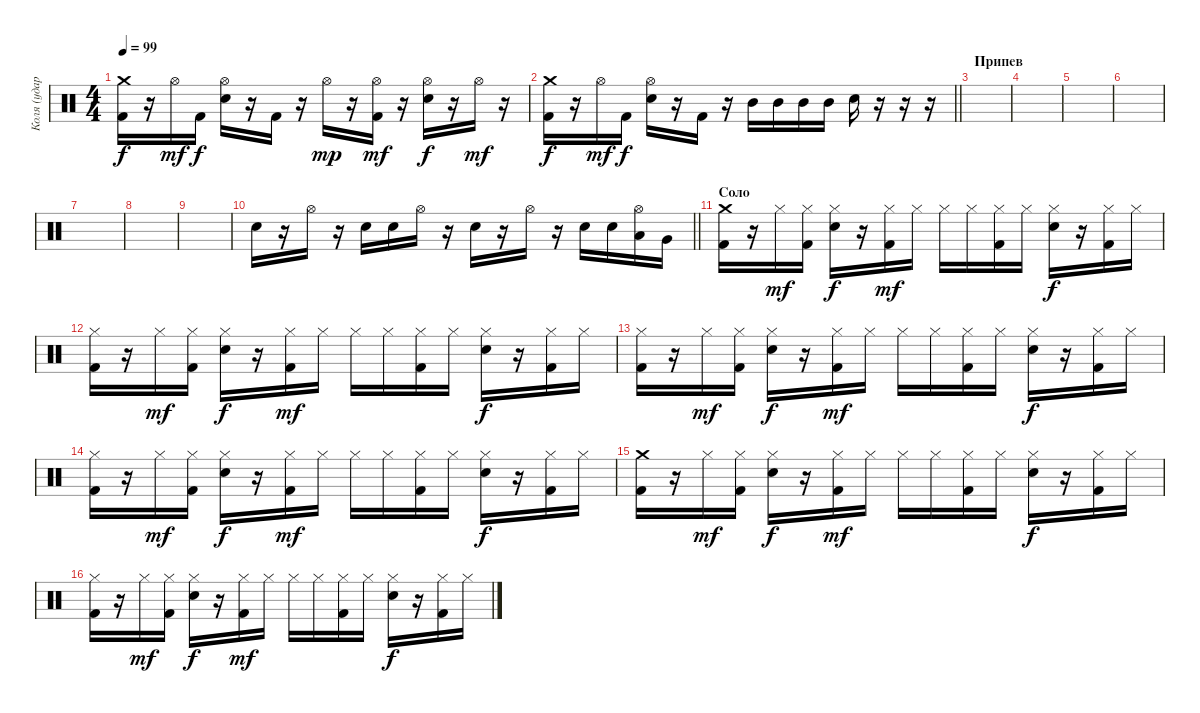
\track ("Коля (ударные)" "Коля (удар") {instrument percussion}
\staff {score}
\articulation defaults
\ts (4 4)
\tempo 99
\clef neutral
\ks c
("Crash medium (hit)" "Kick (hit) 2").16{dy f} r.16 "Hi-Hat (open)".16{dy mf} "Kick (hit) 2".16{dy f} ("Electric Snare (hit)" "Hi-Hat (open)").16 r.16 "Kick (hit) 2".16 r.16 "Hi-Hat (open)".16{dy mp} r.16 ("Kick (hit) 2" "Hi-Hat (open)").16{dy mf} r.16 ("Electric Snare (hit)" "Hi-Hat (open)").16{dy f} r.16 "Hi-Hat (open)".16{dy mf} r.16 |
\barLineRight lightlight
("Crash medium (hit)" "Kick (hit) 2").16{dy f} r.16 "Hi-Hat (open)".16{dy mf} "Kick (hit) 2".16{dy f} ("Electric Snare (hit)" "Hi-Hat (open)").16 r.16 "Kick (hit) 2".16 r.16 "Mid Tom (hit)".16 "Mid Tom (hit)".16 "Mid Tom (hit)".16 "Mid Tom (hit)".16 "Electric Snare (hit)".16 r.16 r.16 r.16 |
\section ("" "Припев")
|
|
|
|
|
|
|
\barLineRight lightlight "Electric Snare (hit)".16
r.16 "Hi-Hat (open)".16 r.16 "Electric Snare (hit)".16 "Electric Snare (hit)".16 "Hi-Hat (open)".16 r.16 "Electric Snare (hit)".16 r.16 "Hi-Hat (open)".16 r.16 "Electric Snare (hit)".16 "Electric Snare (hit)".16 ("Low Tom (hit)" "Hi-Hat (open)").16 "Very Low Tom (hit)".16 |
\section ("" "Соло")
("Crash medium (hit)" "Kick (hit) 2").16 r.16 "Hi-Hat (closed)".16{dy mf} ("Kick (hit) 2" "Hi-Hat (closed)").16 ("Electric Snare (hit)" "Hi-Hat (closed)").16{dy f} r.16 ("Kick (hit) 2" "Hi-Hat (closed)").16{dy mf} "Hi-Hat (closed)".16 "Hi-Hat (closed)".16 "Hi-Hat (closed)".16 ("Kick (hit) 2" "Hi-Hat (closed)").16 "Hi-Hat (closed)".16 ("Electric Snare (hit)" "Hi-Hat (closed)").16{dy f} r.16 ("Kick (hit) 2" "Hi-Hat (closed)").16 "Hi-Hat (closed)".16 |
("Kick (hit) 2" "Hi-Hat (closed)").16 r.16 "Hi-Hat (closed)".16{dy mf} ("Kick (hit) 2" "Hi-Hat (closed)").16 ("Electric Snare (hit)" "Hi-Hat (closed)").16{dy f} r.16 ("Kick (hit) 2" "Hi-Hat (closed)").16{dy mf} "Hi-Hat (closed)".16 "Hi-Hat (closed)".16 "Hi-Hat (closed)".16 ("Kick (hit) 2" "Hi-Hat (closed)").16 "Hi-Hat (closed)".16 ("Electric Snare (hit)" "Hi-Hat (closed)").16{dy f} r.16 ("Kick (hit) 2" "Hi-Hat (closed)").16 "Hi-Hat (closed)".16 |
("Kick (hit) 2" "Hi-Hat (closed)").16 r.16 "Hi-Hat (closed)".16{dy mf} ("Kick (hit) 2" "Hi-Hat (closed)").16 ("Electric Snare (hit)" "Hi-Hat (closed)").16{dy f} r.16 ("Kick (hit) 2" "Hi-Hat (closed)").16{dy mf} "Hi-Hat (closed)".16 "Hi-Hat (closed)".16 "Hi-Hat (closed)".16 ("Kick (hit) 2" "Hi-Hat (closed)").16 "Hi-Hat (closed)".16 ("Electric Snare (hit)" "Hi-Hat (closed)").16{dy f} r.16 ("Kick (hit) 2" "Hi-Hat (closed)").16 "Hi-Hat (closed)".16 |
("Kick (hit) 2" "Hi-Hat (closed)").16 r.16 "Hi-Hat (closed)".16{dy mf} ("Kick (hit) 2" "Hi-Hat (closed)").16 ("Electric Snare (hit)" "Hi-Hat (closed)").16{dy f} r.16 ("Kick (hit) 2" "Hi-Hat (closed)").16{dy mf} "Hi-Hat (closed)".16 "Hi-Hat (closed)".16 "Hi-Hat (closed)".16 ("Kick (hit) 2" "Hi-Hat (closed)").16 "Hi-Hat (closed)".16 ("Electric Snare (hit)" "Hi-Hat (closed)").16{dy f} r.16 ("Kick (hit) 2" "Hi-Hat (closed)").16 "Hi-Hat (closed)".16 |
("Crash medium (hit)" "Kick (hit) 2").16 r.16 "Hi-Hat (closed)".16{dy mf} ("Kick (hit) 2" "Hi-Hat (closed)").16 ("Electric Snare (hit)" "Hi-Hat (closed)").16{dy f} r.16 ("Kick (hit) 2" "Hi-Hat (closed)").16{dy mf} "Hi-Hat (closed)".16 "Hi-Hat (closed)".16 "Hi-Hat (closed)".16 ("Kick (hit) 2" "Hi-Hat (closed)").16 "Hi-Hat (closed)".16 ("Electric Snare (hit)" "Hi-Hat (closed)").16{dy f} r.16 ("Kick (hit) 2" "Hi-Hat (closed)").16 "Hi-Hat (closed)".16 |
("Kick (hit) 2" "Hi-Hat (closed)").16 r.16 "Hi-Hat (closed)".16{dy mf} ("Kick (hit) 2" "Hi-Hat (closed)").16 ("Electric Snare (hit)" "Hi-Hat (closed)").16{dy f} r.16 ("Kick (hit) 2" "Hi-Hat (closed)").16{dy mf} "Hi-Hat (closed)".16 "Hi-Hat (closed)".16 "Hi-Hat (closed)".16 ("Kick (hit) 2" "Hi-Hat (closed)").16 "Hi-Hat (closed)".16 ("Electric Snare (hit)" "Hi-Hat (closed)").16{dy f} r.16 ("Kick (hit) 2" "Hi-Hat (closed)").16 "Hi-Hat (closed)".16
